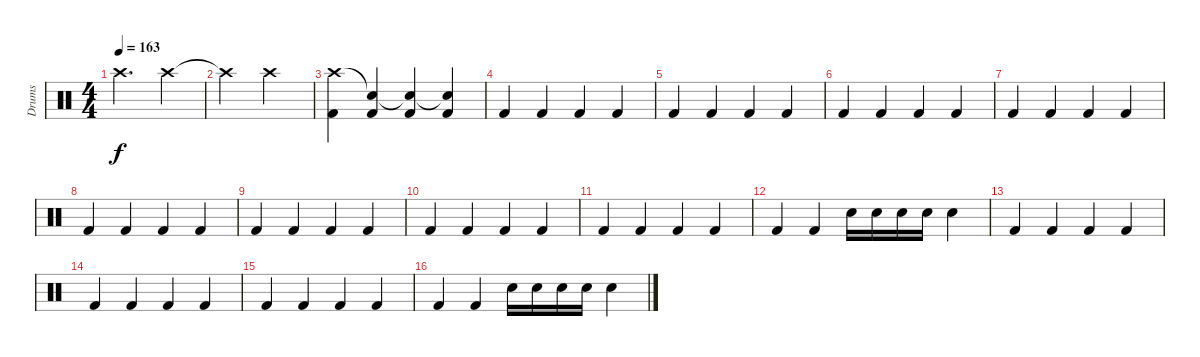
\track ("Drums" "Drums") {instrument percussion}
\staff {score}
\articulation defaults
\ts (4 4)
\tempo 163
\clef neutral
\ks c "Crash high (hit)".2{d dy f} "Crash high (hit)".4
|
"Crash high (hit)"{t}.2 "Crash high (hit)".2 |
("Crash high (hit)" "Kick (hit) 2").4 ("Snare (hit)"{t} "Kick (hit) 2").4 ("Snare (hit)"{t} "Kick (hit) 2").4 ("Snare (hit)"{t} "Kick (hit) 2").4 |
"Kick (hit) 2".4 "Kick (hit) 2".4 "Kick (hit) 2".4 "Kick (hit) 2".4 |
"Kick (hit) 2".4 "Kick (hit) 2".4 "Kick (hit) 2".4 "Kick (hit) 2".4 |
"Kick (hit) 2".4 "Kick (hit) 2".4 "Kick (hit) 2".4 "Kick (hit) 2".4 |
"Kick (hit) 2".4 "Kick (hit) 2".4 "Kick (hit) 2".4 "Kick (hit) 2".4 |
"Kick (hit) 2".4 "Kick (hit) 2".4 "Kick (hit) 2".4 "Kick (hit) 2".4 |
"Kick (hit) 2".4 "Kick (hit) 2".4 "Kick (hit) 2".4 "Kick (hit) 2".4 |
"Kick (hit) 2".4 "Kick (hit) 2".4 "Kick (hit) 2".4 "Kick (hit) 2".4 |
"Kick (hit) 2".4 "Kick (hit) 2".4 "Kick (hit) 2".4 "Kick (hit) 2".4 |
"Kick (hit) 2".4 "Kick (hit) 2".4 "Electric Snare (hit)".16 "Electric Snare (hit)".16 "Electric Snare (hit)".16 "Electric Snare (hit)".16 "Electric Snare (hit)".4 |
"Kick (hit) 2".4 "Kick (hit) 2".4 "Kick (hit) 2".4 "Kick (hit) 2".4 |
"Kick (hit) 2".4 "Kick (hit) 2".4 "Kick (hit) 2".4 "Kick (hit) 2".4 |
"Kick (hit) 2".4 "Kick (hit) 2".4 "Kick (hit) 2".4 "Kick (hit) 2".4 |
"Kick (hit) 2".4 "Kick (hit) 2".4 "Electric Snare (hit)".16 "Electric Snare (hit)".16 "Electric Snare (hit)".16 "Electric Snare (hit)".16 "Electric Snare (hit)".4
